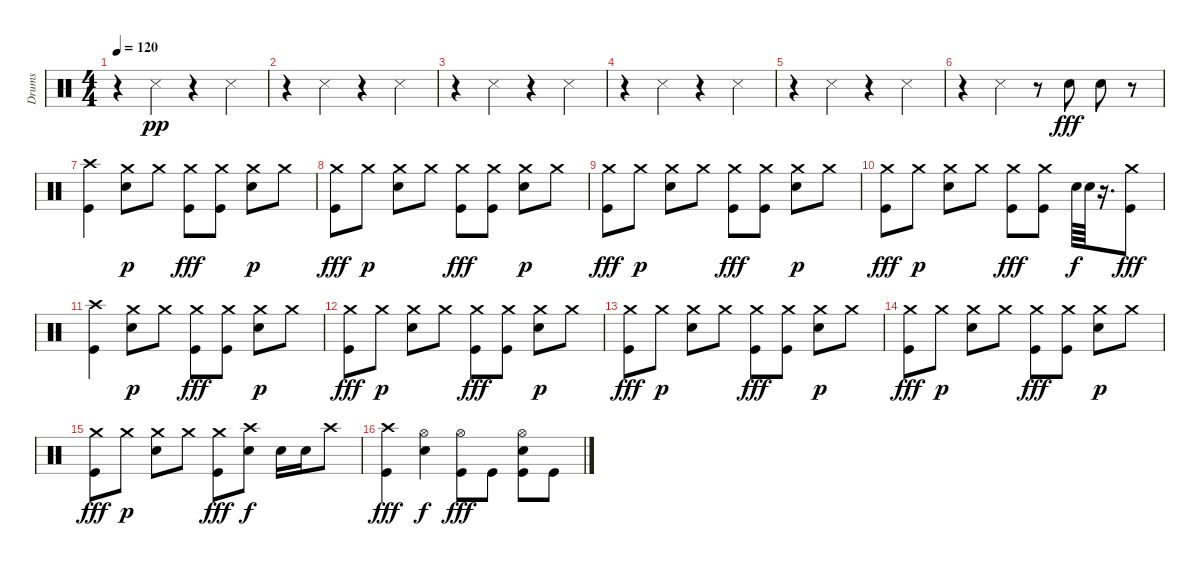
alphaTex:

\track ("Drums" "Drums") {instrument percussion}
\staff {score}
\articulation defaults
\ts (4 4)
\tempo 120
\clef neutral
\ks c
r.4{dy pp} "Snare (side stick) 3".4 r.4 "Snare (side stick) 3".4 |
r.4 "Snare (side stick) 3".4 r.4 "Snare (side stick) 3".4 |
r.4 "Snare (side stick) 3".4 r.4 "Snare (side stick) 3".4 |
r.4 "Snare (side stick) 3".4 r.4 "Snare (side stick) 3".4 |
r.4 "Snare (side stick) 3".4 r.4 "Snare (side stick) 3".4 |
r.4 "Snare (side stick) 3".4 r.8 "Snare (hit) 2".8{dy fff} "Snare (hit) 2".8 r.8 |
("Crash high (hit)" "Kick (hit)").4 ("Crash medium (hit)" "Snare (hit) 2").8{dy p} "Crash medium (hit)".8 ("Crash medium (hit)" "Kick (hit)").8{dy fff} ("Crash medium (hit)" "Kick (hit)").8 ("Crash medium (hit)" "Snare (hit) 2").8{dy p} "Crash medium (hit)".8 |
("Crash medium (hit)" "Kick (hit)").8{dy fff} "Crash medium (hit)".8{dy p} ("Crash medium (hit)" "Snare (hit) 2").8 "Crash medium (hit)".8 ("Crash medium (hit)" "Kick (hit)").8{dy fff} ("Crash medium (hit)" "Kick (hit)").8 ("Crash medium (hit)" "Snare (hit) 2").8{dy p} "Crash medium (hit)".8 |
("Crash medium (hit)" "Kick (hit)").8{dy fff} "Crash medium (hit)".8{dy p} ("Crash medium (hit)" "Snare (hit) 2").8 "Crash medium (hit)".8 ("Crash medium (hit)" "Kick (hit)").8{dy fff} ("Crash medium (hit)" "Kick (hit)").8 ("Crash medium (hit)" "Snare (hit) 2").8{dy p} "Crash medium (hit)".8 |
("Crash medium (hit)" "Kick (hit)").8{dy fff} "Crash medium (hit)".8{dy p} ("Crash medium (hit)" "Snare (hit) 2").8 "Crash medium (hit)".8 ("Crash medium (hit)" "Kick (hit)").8{dy fff} ("Crash medium (hit)" "Kick (hit)").8 "Snare (hit) 2".64{dy f} "Snare (hit) 2".64 r.16{d} ("Crash medium (hit)" "Kick (hit)").8{dy fff} |
("Crash high (hit)" "Kick (hit)").4 ("Crash medium (hit)" "Snare (hit) 2").8{dy p} "Crash medium (hit)".8 ("Crash medium (hit)" "Kick (hit)").8{dy fff} ("Crash medium (hit)" "Kick (hit)").8 ("Crash medium (hit)" "Snare (hit) 2").8{dy p} "Crash medium (hit)".8 |
("Crash medium (hit)" "Kick (hit)").8{dy fff} "Crash medium (hit)".8{dy p} ("Crash medium (hit)" "Snare (hit) 2").8 "Crash medium (hit)".8 ("Crash medium (hit)" "Kick (hit)").8{dy fff} ("Crash medium (hit)" "Kick (hit)").8 ("Crash medium (hit)" "Snare (hit) 2").8{dy p} "Crash medium (hit)".8 |
("Crash medium (hit)" "Kick (hit)").8{dy fff} "Crash medium (hit)".8{dy p} ("Crash medium (hit)" "Snare (hit) 2").8 "Crash medium (hit)".8 ("Crash medium (hit)" "Kick (hit)").8{dy fff} ("Crash medium (hit)" "Kick (hit)").8 ("Crash medium (hit)" "Snare (hit) 2").8{dy p} "Crash medium (hit)".8 |
("Crash medium (hit)" "Kick (hit)").8{dy fff} "Crash medium (hit)".8{dy p} ("Crash medium (hit)" "Snare (hit) 2").8 "Crash medium (hit)".8 ("Crash medium (hit)" "Kick (hit)").8{dy fff} ("Crash medium (hit)" "Kick (hit)").8 ("Crash medium (hit)" "Snare (hit) 2").8{dy p} "Crash medium (hit)".8 |
("Crash medium (hit)" "Kick (hit)").8{dy fff} "Crash medium (hit)".8{dy p} ("Crash medium (hit)" "Snare (hit) 2").8 "Crash medium (hit)".8 ("Crash medium (hit)" "Kick (hit)").8{dy fff} ("Crash high (hit)" "Snare (hit) 2").8{dy f} "Snare (hit) 2".16 "Snare (hit) 2".16 "Crash high (hit)".8 |
("Crash high (hit)" "Kick (hit)").4{dy fff} ("Hi-Hat (open)" "Snare (hit) 2").4{dy f} ("Hi-Hat (open)" "Kick (hit)").8{dy fff} "Kick (hit)".8 ("Hi-Hat (open)" "Snare (hit) 2" "Kick (hit)").8 "Kick (hit)".8
